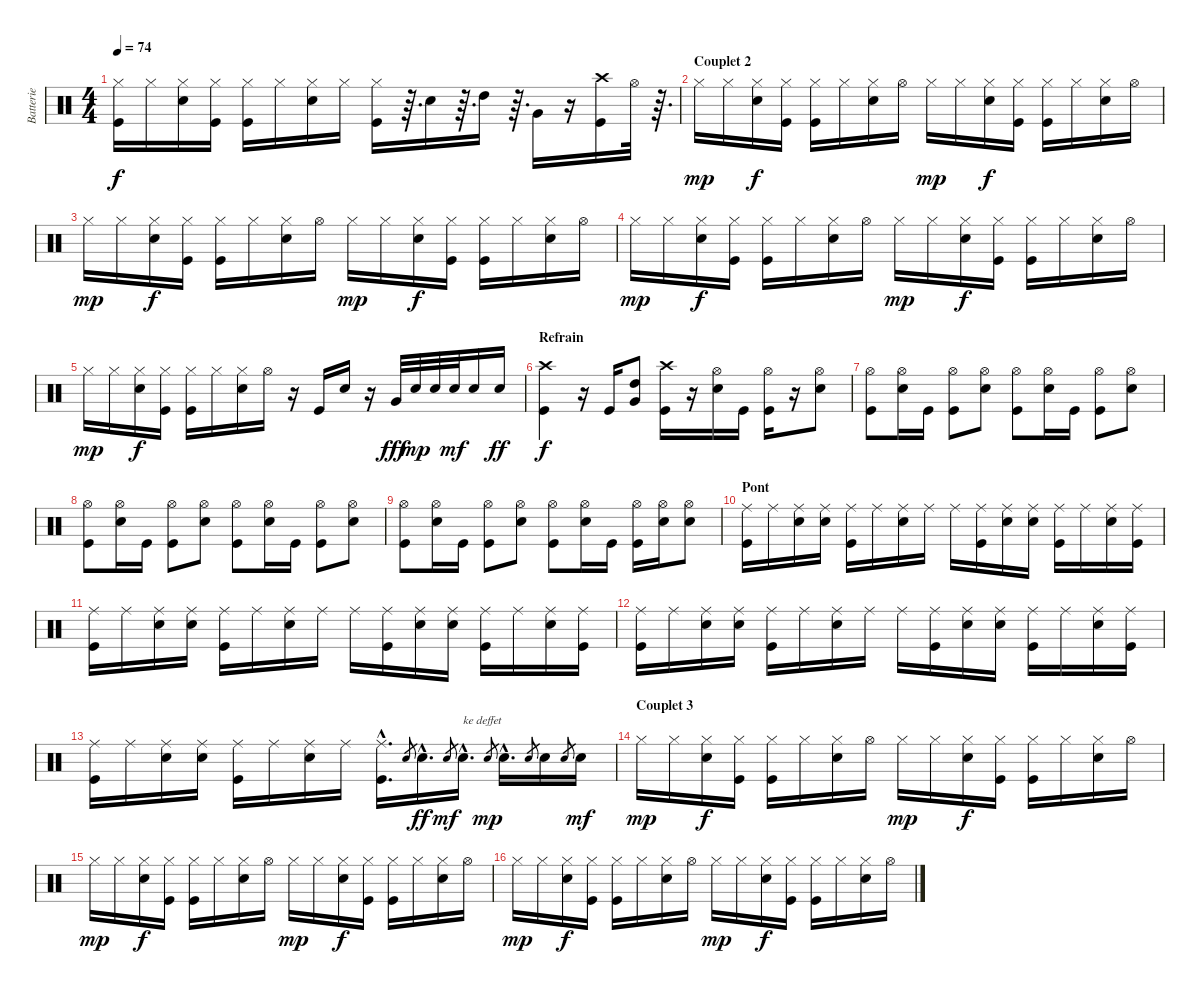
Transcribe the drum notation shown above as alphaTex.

\track ("Batterie" "Batterie") {instrument percussion}
\staff {score}
\articulation defaults
\ts (4 4)
\tempo 74
\clef neutral
\ks c
("Hi-Hat (closed)" "Kick (hit)").16{dy f} "Hi-Hat (closed)".16 ("Hi-Hat (closed)" "Snare (hit) 2").16 ("Hi-Hat (closed)" "Kick (hit)").16 ("Hi-Hat (closed)" "Kick (hit)").16 "Hi-Hat (closed)".16 ("Hi-Hat (closed)" "Snare (hit) 2").16 "Hi-Hat (closed)".16 ("Hi-Hat (closed)" "Kick (hit)").16 r.64{d} "Snare (hit) 2".16 r.64{d} "High Tom (hit)".16 r.64{d} "Very Low Tom (hit)".16 r.16 ("Crash high (hit)" "Kick (hit)").16 "Hi-Hat (open)".32 r.64{d} |
\section ("" "Couplet 2")
"Hi-Hat (closed)".16{dy mp} "Hi-Hat (closed)".16 ("Hi-Hat (closed)" "Snare (hit) 2").16{dy f} ("Hi-Hat (closed)" "Kick (hit)").16 ("Hi-Hat (closed)" "Kick (hit)").16 "Hi-Hat (closed)".16 ("Hi-Hat (closed)" "Snare (hit) 2").16 "Hi-Hat (open)".16 "Hi-Hat (closed)".16{dy mp} "Hi-Hat (closed)".16 ("Hi-Hat (closed)" "Snare (hit) 2").16{dy f} ("Hi-Hat (closed)" "Kick (hit)").16 ("Hi-Hat (closed)" "Kick (hit)").16 "Hi-Hat (closed)".16 ("Hi-Hat (closed)" "Snare (hit) 2").16 "Hi-Hat (open)".16 |
"Hi-Hat (closed)".16{dy mp} "Hi-Hat (closed)".16 ("Hi-Hat (closed)" "Snare (hit) 2").16{dy f} ("Hi-Hat (closed)" "Kick (hit)").16 ("Hi-Hat (closed)" "Kick (hit)").16 "Hi-Hat (closed)".16 ("Hi-Hat (closed)" "Snare (hit) 2").16 "Hi-Hat (open)".16 "Hi-Hat (closed)".16{dy mp} "Hi-Hat (closed)".16 ("Hi-Hat (closed)" "Snare (hit) 2").16{dy f} ("Hi-Hat (closed)" "Kick (hit)").16 ("Hi-Hat (closed)" "Kick (hit)").16 "Hi-Hat (closed)".16 ("Hi-Hat (closed)" "Snare (hit) 2").16 "Hi-Hat (open)".16 |
"Hi-Hat (closed)".16{dy mp} "Hi-Hat (closed)".16 ("Hi-Hat (closed)" "Snare (hit) 2").16{dy f} ("Hi-Hat (closed)" "Kick (hit)").16 ("Hi-Hat (closed)" "Kick (hit)").16 "Hi-Hat (closed)".16 ("Hi-Hat (closed)" "Snare (hit) 2").16 "Hi-Hat (open)".16 "Hi-Hat (closed)".16{dy mp} "Hi-Hat (closed)".16 ("Hi-Hat (closed)" "Snare (hit) 2").16{dy f} ("Hi-Hat (closed)" "Kick (hit)").16 ("Hi-Hat (closed)" "Kick (hit)").16 "Hi-Hat (closed)".16 ("Hi-Hat (closed)" "Snare (hit) 2").16 "Hi-Hat (open)".16 |
"Hi-Hat (closed)".16{dy mp} "Hi-Hat (closed)".16 ("Hi-Hat (closed)" "Snare (hit) 2").16{dy f} ("Hi-Hat (closed)" "Kick (hit)").16 ("Hi-Hat (closed)" "Kick (hit)").16 "Hi-Hat (closed)".16 ("Hi-Hat (closed)" "Snare (hit) 2").16 "Hi-Hat (open)".16 r.16 "Kick (hit)".16 "Snare (hit) 2".16 r.16 "Very Low Tom (hit)".32{dy fff} "Snare (hit) 2".32{dy mp} "Snare (hit) 2".32 "Snare (hit) 2".32{dy mf} "Snare (hit) 2".16 "Snare (hit) 2".16{dy ff} |
\section ("" "Refrain")
("Crash high (hit)" "Kick (hit)").4{dy f} r.16 "Kick (hit)".16 ("High Tom (hit)" "Very Low Tom (hit)").8 ("Crash high (hit)" "Kick (hit)").16 r.16 ("Hi-Hat (open)" "Snare (hit) 2").16 "Kick (hit)".16 ("Hi-Hat (open)" "Kick (hit)").16 r.16 ("Hi-Hat (open)" "Snare (hit) 2").8 |
("Hi-Hat (open)" "Kick (hit)").8 ("Hi-Hat (open)" "Snare (hit) 2").16 "Kick (hit)".16 ("Hi-Hat (open)" "Kick (hit)").8 ("Hi-Hat (open)" "Snare (hit) 2").8 ("Hi-Hat (open)" "Kick (hit)").8 ("Hi-Hat (open)" "Snare (hit) 2").16 "Kick (hit)".16 ("Hi-Hat (open)" "Kick (hit)").8 ("Hi-Hat (open)" "Snare (hit) 2").8 |
("Hi-Hat (open)" "Kick (hit)").8 ("Hi-Hat (open)" "Snare (hit) 2").16 "Kick (hit)".16 ("Hi-Hat (open)" "Kick (hit)").8 ("Hi-Hat (open)" "Snare (hit) 2").8 ("Hi-Hat (open)" "Kick (hit)").8 ("Hi-Hat (open)" "Snare (hit) 2").16 "Kick (hit)".16 ("Hi-Hat (open)" "Kick (hit)").8 ("Hi-Hat (open)" "Snare (hit) 2").8 |
("Hi-Hat (open)" "Kick (hit)").8 ("Hi-Hat (open)" "Snare (hit) 2").16 "Kick (hit)".16 ("Hi-Hat (open)" "Kick (hit)").8 ("Hi-Hat (open)" "Snare (hit) 2").8 ("Hi-Hat (open)" "Kick (hit)").8 ("Hi-Hat (open)" "Snare (hit) 2").16 "Kick (hit)".16 ("Hi-Hat (open)" "Kick (hit)").16 ("Hi-Hat (open)" "Snare (hit) 2").16 ("Hi-Hat (open)" "Snare (hit) 2").8 |
\section ("" "Pont")
("Ride (middle)" "Kick (hit)").16 "Ride (middle)".16 ("Ride (middle)" "Snare (hit) 2").16 ("Ride (middle)" "Snare (hit) 2").16 ("Ride (middle)" "Kick (hit)").16 "Ride (middle)".16 ("Ride (middle)" "Snare (hit) 2").16 "Ride (middle)".16 "Ride (middle)".16 ("Ride (middle)" "Kick (hit)").16 ("Ride (middle)" "Snare (hit) 2").16 ("Ride (middle)" "Snare (hit) 2").16 ("Ride (middle)" "Kick (hit)").16 "Ride (middle)".16 ("Ride (middle)" "Snare (hit) 2").16 ("Ride (middle)" "Kick (hit)").16 |
("Ride (middle)" "Kick (hit)").16 "Ride (middle)".16 ("Ride (middle)" "Snare (hit) 2").16 ("Ride (middle)" "Snare (hit) 2").16 ("Ride (middle)" "Kick (hit)").16 "Ride (middle)".16 ("Ride (middle)" "Snare (hit) 2").16 "Ride (middle)".16 "Ride (middle)".16 ("Ride (middle)" "Kick (hit)").16 ("Ride (middle)" "Snare (hit) 2").16 ("Ride (middle)" "Snare (hit) 2").16 ("Ride (middle)" "Kick (hit)").16 "Ride (middle)".16 ("Ride (middle)" "Snare (hit) 2").16 ("Ride (middle)" "Kick (hit)").16 |
("Ride (middle)" "Kick (hit)").16 "Ride (middle)".16 ("Ride (middle)" "Snare (hit) 2").16 ("Ride (middle)" "Snare (hit) 2").16 ("Ride (middle)" "Kick (hit)").16 "Ride (middle)".16 ("Ride (middle)" "Snare (hit) 2").16 "Ride (middle)".16 "Ride (middle)".16 ("Ride (middle)" "Kick (hit)").16 ("Ride (middle)" "Snare (hit) 2").16 ("Ride (middle)" "Snare (hit) 2").16 ("Ride (middle)" "Kick (hit)").16 "Ride (middle)".16 ("Ride (middle)" "Snare (hit) 2").16 ("Ride (middle)" "Kick (hit)").16 |
("Ride (middle)" "Kick (hit)").16 "Ride (middle)".16 ("Ride (middle)" "Snare (hit) 2").16 ("Ride (middle)" "Snare (hit) 2").16 ("Ride (middle)" "Kick (hit)").16 "Ride (middle)".16 ("Ride (middle)" "Snare (hit) 2").16 "Ride (middle)".16 ("Ride (middle)"{hac} "Kick (hit)"{hac}).16{d} "Snare (hit) 2".8{gr} "Snare (hit) 2"{hac}.16{d dy ff} "Snare (hit) 2".8{gr dy mf} "Snare (hit) 2"{hac}.16{d txt "ke deffet"} "Snare (hit) 2".8{gr dy mp} "Snare (hit) 2"{hac}.16{d} "Snare (hit) 2".8{gr} "Snare (hit) 2".16 "Snare (hit) 2".8{gr} "Snare (hit) 2".16{dy mf} |
\section ("" "Couplet 3")
"Hi-Hat (closed)".16{dy mp} "Hi-Hat (closed)".16 ("Hi-Hat (closed)" "Snare (hit) 2").16{dy f} ("Hi-Hat (closed)" "Kick (hit)").16 ("Hi-Hat (closed)" "Kick (hit)").16 "Hi-Hat (closed)".16 ("Hi-Hat (closed)" "Snare (hit) 2").16 "Hi-Hat (open)".16 "Hi-Hat (closed)".16{dy mp} "Hi-Hat (closed)".16 ("Hi-Hat (closed)" "Snare (hit) 2").16{dy f} ("Hi-Hat (closed)" "Kick (hit)").16 ("Hi-Hat (closed)" "Kick (hit)").16 "Hi-Hat (closed)".16 ("Hi-Hat (closed)" "Snare (hit) 2").16 "Hi-Hat (open)".16 |
"Hi-Hat (closed)".16{dy mp} "Hi-Hat (closed)".16 ("Hi-Hat (closed)" "Snare (hit) 2").16{dy f} ("Hi-Hat (closed)" "Kick (hit)").16 ("Hi-Hat (closed)" "Kick (hit)").16 "Hi-Hat (closed)".16 ("Hi-Hat (closed)" "Snare (hit) 2").16 "Hi-Hat (open)".16 "Hi-Hat (closed)".16{dy mp} "Hi-Hat (closed)".16 ("Hi-Hat (closed)" "Snare (hit) 2").16{dy f} ("Hi-Hat (closed)" "Kick (hit)").16 ("Hi-Hat (closed)" "Kick (hit)").16 "Hi-Hat (closed)".16 ("Hi-Hat (closed)" "Snare (hit) 2").16 "Hi-Hat (open)".16 |
"Hi-Hat (closed)".16{dy mp} "Hi-Hat (closed)".16 ("Hi-Hat (closed)" "Snare (hit) 2").16{dy f} ("Hi-Hat (closed)" "Kick (hit)").16 ("Hi-Hat (closed)" "Kick (hit)").16 "Hi-Hat (closed)".16 ("Hi-Hat (closed)" "Snare (hit) 2").16 "Hi-Hat (open)".16 "Hi-Hat (closed)".16{dy mp} "Hi-Hat (closed)".16 ("Hi-Hat (closed)" "Snare (hit) 2").16{dy f} ("Hi-Hat (closed)" "Kick (hit)").16 ("Hi-Hat (closed)" "Kick (hit)").16 "Hi-Hat (closed)".16 ("Hi-Hat (closed)" "Snare (hit) 2").16 "Hi-Hat (open)".16
